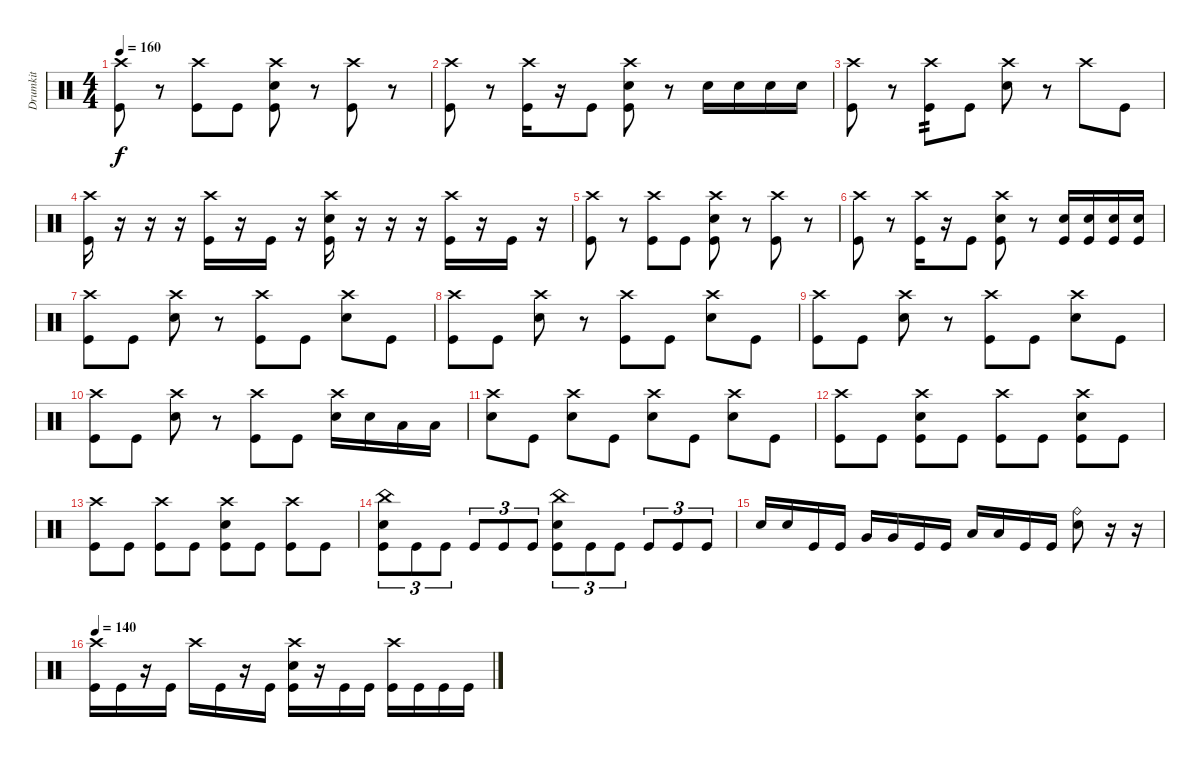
\track ("Drumkit" "Drumkit") {instrument percussion}
\staff {score}
\articulation defaults
\ts (4 4)
\tempo 160
\clef neutral
\ks c
("Crash high (hit)" "Kick (hit)").8{dy f} r.8 ("Crash high (hit)" "Kick (hit)").8 "Kick (hit)".8 ("Crash high (hit)" "Snare (hit) 2" "Kick (hit)").8 r.8 ("Crash high (hit)" "Kick (hit)").8 r.8 |
("Crash high (hit)" "Kick (hit)").8 r.8 ("Crash high (hit)" "Kick (hit)").16 r.16 "Kick (hit)".8 ("Crash high (hit)" "Snare (hit) 2" "Kick (hit)").8 r.8 "Snare (hit) 2".16 "Snare (hit) 2".16 "Snare (hit) 2".16 "Snare (hit) 2".16 |
("Crash high (hit)" "Kick (hit)").8 r.8 ("Crash high (hit)" "Kick (hit)").8{tp 2} "Kick (hit)".8 ("Crash high (hit)" "Snare (hit) 2").8 r.8 "Crash high (hit)".8 "Kick (hit)".8 |
("Crash high (hit)" "Kick (hit)").16 r.16 r.16 r.16 ("Crash high (hit)" "Kick (hit)").16 r.16 "Kick (hit)".16 r.16 ("Crash high (hit)" "Snare (hit) 2" "Kick (hit)").16 r.16 r.16 r.16 ("Crash high (hit)" "Kick (hit)").16 r.16 "Kick (hit)".16 r.16 |
("Crash high (hit)" "Kick (hit)").8 r.8 ("Crash high (hit)" "Kick (hit)").8 "Kick (hit)".8 ("Crash high (hit)" "Snare (hit) 2" "Kick (hit)").8 r.8 ("Crash high (hit)" "Kick (hit)").8 r.8 |
("Crash high (hit)" "Kick (hit)").8 r.8 ("Crash high (hit)" "Kick (hit)").16 r.16 "Kick (hit)".8 ("Crash high (hit)" "Snare (hit) 2" "Kick (hit)").8 r.8 ("Snare (hit) 2" "Kick (hit)").16 ("Snare (hit) 2" "Kick (hit)").16 ("Kick (hit)" "Snare (hit) 2").16 ("Kick (hit)" "Snare (hit) 2").16 |
("Crash high (hit)" "Kick (hit)").8 "Kick (hit)".8 ("Crash high (hit)" "Snare (hit) 2").8 r.8 ("Crash high (hit)" "Kick (hit)").8 "Kick (hit)".8 ("Crash high (hit)" "Snare (hit) 2").8 "Kick (hit)".8 |
("Crash high (hit)" "Kick (hit)").8 "Kick (hit)".8 ("Crash high (hit)" "Snare (hit) 2").8 r.8 ("Crash high (hit)" "Kick (hit)").8 "Kick (hit)".8 ("Crash high (hit)" "Snare (hit) 2").8 "Kick (hit)".8 |
("Crash high (hit)" "Kick (hit)").8 "Kick (hit)".8 ("Crash high (hit)" "Snare (hit) 2").8 r.8 ("Crash high (hit)" "Kick (hit)").8 "Kick (hit)".8 ("Crash high (hit)" "Snare (hit) 2").8 "Kick (hit)".8 |
("Crash high (hit)" "Kick (hit)").8 "Kick (hit)".8 ("Crash high (hit)" "Snare (hit) 2").8 r.8 ("Crash high (hit)" "Kick (hit)").8 "Kick (hit)".8 ("Crash high (hit)" "Snare (hit) 2").16 "Snare (hit) 2".16 "Low Floor Tom (hit)".16 "Low Floor Tom (hit)".16 |
("Crash high (hit)" "Snare (hit) 2").8 "Kick (hit)".8 ("Crash high (hit)" "Snare (hit) 2").8 "Kick (hit)".8 ("Crash high (hit)" "Snare (hit) 2").8 "Kick (hit)".8 ("Crash high (hit)" "Snare (hit) 2").8 "Kick (hit)".8 |
("Crash high (hit)" "Kick (hit)").8 "Kick (hit)".8 ("Crash high (hit)" "Snare (hit) 2" "Kick (hit)").8 "Kick (hit)".8 ("Crash high (hit)" "Kick (hit)").8 "Kick (hit)".8 ("Crash high (hit)" "Snare (hit) 2" "Kick (hit)").8 "Kick (hit)".8 |
("Crash high (hit)" "Kick (hit)").8 "Kick (hit)".8 ("Crash high (hit)" "Kick (hit)").8 "Kick (hit)".8 ("Crash high (hit)" "Kick (hit)" "Snare (hit) 2").8 "Kick (hit)".8 ("Crash high (hit)" "Kick (hit)").8 "Kick (hit)".8 |
("Kick (hit)" "Snare (hit) 2" "China (hit)").8{tu (3 2)} "Kick (hit)".8{tu (3 2)} "Kick (hit)".8{tu (3 2)} "Kick (hit)".8{tu (3 2)} "Kick (hit)".8{tu (3 2)} "Kick (hit)".8{tu (3 2)} ("Kick (hit)" "Snare (hit) 2" "China (hit)").8{tu (3 2)} "Kick (hit)".8{tu (3 2)} "Kick (hit)".8{tu (3 2)} "Kick (hit)".8{tu (3 2)} "Kick (hit)".8{tu (3 2)} "Kick (hit)".8{tu (3 2)} |
"Snare (hit) 2".16 "Snare (hit) 2".16 "Kick (hit)".16 "Kick (hit)".16 "Very Low Tom (hit)".16 "Very Low Tom (hit)".16 "Kick (hit)".16 "Kick (hit)".16 "Low Floor Tom (hit)".16 "Low Floor Tom (hit)".16 "Kick (hit)".16 "Kick (hit)".16 ("Snare (hit) 2" "Ride (bell)").8 r.16 r.16 |
\tempo 140
("Kick (hit)" "Crash high (hit)").16 "Kick (hit)".16 r.16 "Kick (hit)".16 "Crash high (hit)".16 "Kick (hit)".16 r.16 "Kick (hit)".16 ("Kick (hit)" "Snare (hit) 2" "Crash high (hit)").16 r.16 "Kick (hit)".16 "Kick (hit)".16 ("Kick (hit)" "Crash high (hit)").16 "Kick (hit)".16 "Kick (hit)".16 "Kick (hit)".16
